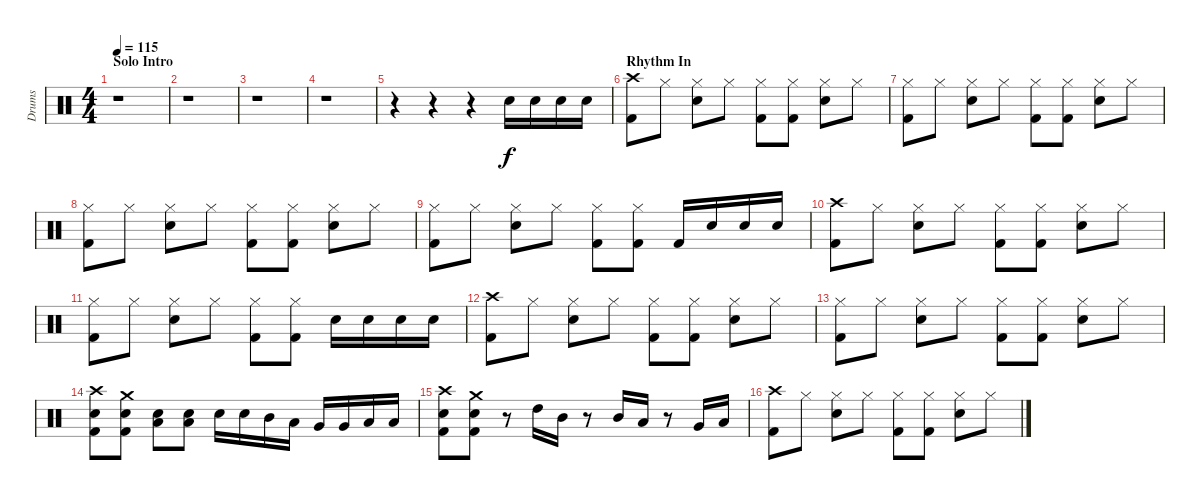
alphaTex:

\track ("Drums" "Drums") {instrument percussion}
\staff {score}
\articulation defaults
\ts (4 4)
\section ("" "Solo Intro")
\tempo 115
\clef neutral
\ks c
r.1{dy f} |
r.1 |
r.1 |
r.1 |
r.4 r.4 r.4 "Electric Snare (hit)".16 "Electric Snare (hit)".16 "Electric Snare (hit)".16 "Electric Snare (hit)".16 |
\section ("" "Rhythm In")
("Crash high (hit)" "Kick (hit) 2").8 "Hi-Hat (closed)".8 ("Hi-Hat (closed)" "Electric Snare (hit)").8 "Hi-Hat (closed)".8 ("Hi-Hat (closed)" "Kick (hit) 2").8 ("Hi-Hat (closed)" "Kick (hit) 2").8 ("Hi-Hat (closed)" "Electric Snare (hit)").8 "Hi-Hat (closed)".8 |
("Hi-Hat (closed)" "Kick (hit) 2").8 "Hi-Hat (closed)".8 ("Hi-Hat (closed)" "Electric Snare (hit)").8 "Hi-Hat (closed)".8 ("Hi-Hat (closed)" "Kick (hit) 2").8 ("Hi-Hat (closed)" "Kick (hit) 2").8 ("Hi-Hat (closed)" "Electric Snare (hit)").8 "Hi-Hat (closed)".8 |
("Hi-Hat (closed)" "Kick (hit) 2").8 "Hi-Hat (closed)".8 ("Hi-Hat (closed)" "Electric Snare (hit)").8 "Hi-Hat (closed)".8 ("Hi-Hat (closed)" "Kick (hit) 2").8 ("Hi-Hat (closed)" "Kick (hit) 2").8 ("Hi-Hat (closed)" "Electric Snare (hit)").8 "Hi-Hat (closed)".8 |
("Hi-Hat (closed)" "Kick (hit) 2").8 "Hi-Hat (closed)".8 ("Hi-Hat (closed)" "Electric Snare (hit)").8 "Hi-Hat (closed)".8 ("Hi-Hat (closed)" "Kick (hit) 2").8 ("Hi-Hat (closed)" "Kick (hit) 2").8 "Kick (hit) 2".16 "Electric Snare (hit)".16 "Electric Snare (hit)".16 "Electric Snare (hit)".16 |
("Crash high (hit)" "Kick (hit) 2").8 "Hi-Hat (closed)".8 ("Hi-Hat (closed)" "Electric Snare (hit)").8 "Hi-Hat (closed)".8 ("Hi-Hat (closed)" "Kick (hit) 2").8 ("Hi-Hat (closed)" "Kick (hit) 2").8 ("Hi-Hat (closed)" "Electric Snare (hit)").8 "Hi-Hat (closed)".8 |
("Hi-Hat (closed)" "Kick (hit) 2").8 "Hi-Hat (closed)".8 ("Hi-Hat (closed)" "Electric Snare (hit)").8 "Hi-Hat (closed)".8 ("Hi-Hat (closed)" "Kick (hit) 2").8 ("Hi-Hat (closed)" "Kick (hit) 2").8 "Electric Snare (hit)".16 "Electric Snare (hit)".16 "Electric Snare (hit)".16 "Electric Snare (hit)".16 |
("Crash high (hit)" "Kick (hit) 2").8 "Hi-Hat (closed)".8 ("Hi-Hat (closed)" "Electric Snare (hit)").8 "Hi-Hat (closed)".8 ("Hi-Hat (closed)" "Kick (hit) 2").8 ("Hi-Hat (closed)" "Kick (hit) 2").8 ("Hi-Hat (closed)" "Electric Snare (hit)").8 "Hi-Hat (closed)".8 |
("Hi-Hat (closed)" "Kick (hit) 2").8 "Hi-Hat (closed)".8 ("Hi-Hat (closed)" "Electric Snare (hit)").8 "Hi-Hat (closed)".8 ("Hi-Hat (closed)" "Kick (hit) 2").8 ("Hi-Hat (closed)" "Kick (hit) 2").8 ("Hi-Hat (closed)" "Electric Snare (hit)").8 "Hi-Hat (closed)".8 |
("Crash high (hit)" "Kick (hit) 2" "Electric Snare (hit)").8 ("Crash medium (hit)" "Kick (hit) 2" "Electric Snare (hit)").8 ("Electric Snare (hit)" "Low Tom (hit)").8 ("Electric Snare (hit)" "Low Tom (hit)").8 "Electric Snare (hit)".16 "Electric Snare (hit)".16 "Mid Tom (hit)".16 "Low Tom (hit)".16 "Very Low Tom (hit)".16 "Very Low Tom (hit)".16 "Low Floor Tom (hit)".16 "Low Floor Tom (hit)".16 |
("Kick (hit) 2" "Crash high (hit)" "Electric Snare (hit)").8 ("Kick (hit) 2" "Crash medium (hit)" "Electric Snare (hit)").8 r.8 "High Tom (hit)".16 "Mid Tom (hit)".16 r.8 "Mid Tom (hit)".16 "Low Tom (hit)".16 r.8 "Very Low Tom (hit)".16 "Low Floor Tom (hit)".16 |
("Crash high (hit)" "Kick (hit) 2").8 "Hi-Hat (closed)".8 ("Hi-Hat (closed)" "Electric Snare (hit)").8 "Hi-Hat (closed)".8 ("Hi-Hat (closed)" "Kick (hit) 2").8 ("Hi-Hat (closed)" "Kick (hit) 2").8 ("Hi-Hat (closed)" "Electric Snare (hit)").8 "Hi-Hat (closed)".8
